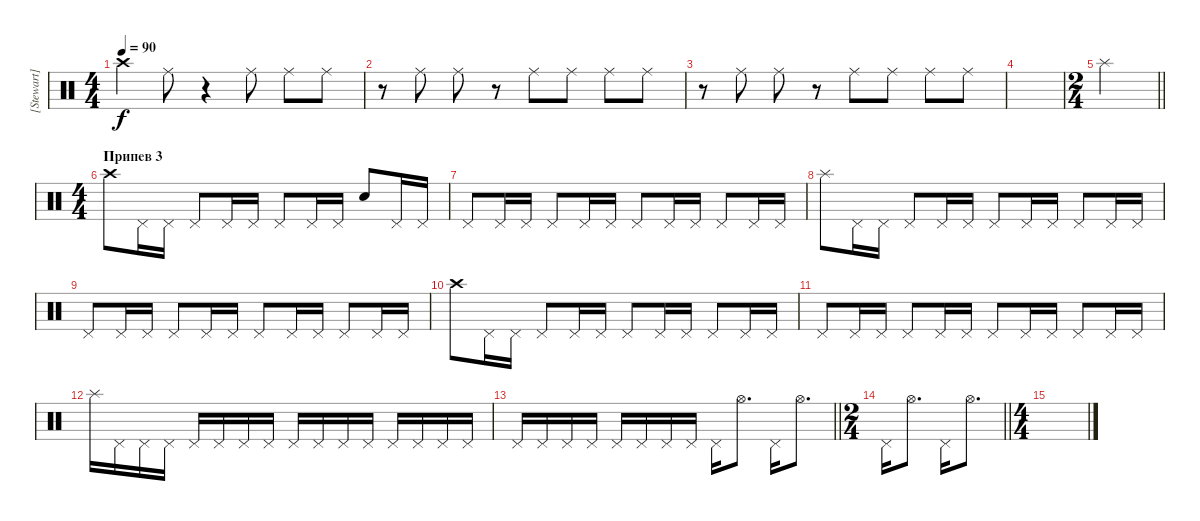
\track ("[Stewart] (hats)" "[Stewart] ") {instrument percussion}
\staff {score}
\articulation defaults
\ts (4 4)
\tempo 90
\clef neutral
\ks c "Crash high (hit)".4{dy f} "Ride (middle)".8
r.4 "Ride (middle)".8 "Ride (middle)".8 "Ride (middle)".8 |
r.8 "Ride (middle)".8 "Ride (middle)".8 r.8 "Ride (middle)".8 "Ride (middle)".8 "Ride (middle)".8 "Ride (middle)".8 |
r.8 "Ride (middle)".8 "Ride (middle)".8 r.8 "Ride (middle)".8 "Ride (middle)".8 "Ride (middle)".8 "Ride (middle)".8 |
|
\ts (2 4)
\barLineRight lightlight "Splash (hit)".2
|
\ts (4 4)
\section ("" "Припев 3")
"Crash high (hit)".8 "Pedal Hi-Hat (hit)".16 "Pedal Hi-Hat (hit)".16 "Pedal Hi-Hat (hit)".8 "Pedal Hi-Hat (hit)".16 "Pedal Hi-Hat (hit)".16 "Pedal Hi-Hat (hit)".8 "Pedal Hi-Hat (hit)".16 "Pedal Hi-Hat (hit)".16 "Snare (hit)".8 "Pedal Hi-Hat (hit)".16 "Pedal Hi-Hat (hit)".16 |
"Pedal Hi-Hat (hit)".8 "Pedal Hi-Hat (hit)".16 "Pedal Hi-Hat (hit)".16 "Pedal Hi-Hat (hit)".8 "Pedal Hi-Hat (hit)".16 "Pedal Hi-Hat (hit)".16 "Pedal Hi-Hat (hit)".8 "Pedal Hi-Hat (hit)".16 "Pedal Hi-Hat (hit)".16 "Pedal Hi-Hat (hit)".8 "Pedal Hi-Hat (hit)".16 "Pedal Hi-Hat (hit)".16 |
"Splash (hit)".8 "Pedal Hi-Hat (hit)".16 "Pedal Hi-Hat (hit)".16 "Pedal Hi-Hat (hit)".8 "Pedal Hi-Hat (hit)".16 "Pedal Hi-Hat (hit)".16 "Pedal Hi-Hat (hit)".8 "Pedal Hi-Hat (hit)".16 "Pedal Hi-Hat (hit)".16 "Pedal Hi-Hat (hit)".8 "Pedal Hi-Hat (hit)".16 "Pedal Hi-Hat (hit)".16 |
"Pedal Hi-Hat (hit)".8 "Pedal Hi-Hat (hit)".16 "Pedal Hi-Hat (hit)".16 "Pedal Hi-Hat (hit)".8 "Pedal Hi-Hat (hit)".16 "Pedal Hi-Hat (hit)".16 "Pedal Hi-Hat (hit)".8 "Pedal Hi-Hat (hit)".16 "Pedal Hi-Hat (hit)".16 "Pedal Hi-Hat (hit)".8 "Pedal Hi-Hat (hit)".16 "Pedal Hi-Hat (hit)".16 |
"Crash high (hit)".8 "Pedal Hi-Hat (hit)".16 "Pedal Hi-Hat (hit)".16 "Pedal Hi-Hat (hit)".8 "Pedal Hi-Hat (hit)".16 "Pedal Hi-Hat (hit)".16 "Pedal Hi-Hat (hit)".8 "Pedal Hi-Hat (hit)".16 "Pedal Hi-Hat (hit)".16 "Pedal Hi-Hat (hit)".8 "Pedal Hi-Hat (hit)".16 "Pedal Hi-Hat (hit)".16 |
"Pedal Hi-Hat (hit)".8 "Pedal Hi-Hat (hit)".16 "Pedal Hi-Hat (hit)".16 "Pedal Hi-Hat (hit)".8 "Pedal Hi-Hat (hit)".16 "Pedal Hi-Hat (hit)".16 "Pedal Hi-Hat (hit)".8 "Pedal Hi-Hat (hit)".16 "Pedal Hi-Hat (hit)".16 "Pedal Hi-Hat (hit)".8 "Pedal Hi-Hat (hit)".16 "Pedal Hi-Hat (hit)".16 |
"Splash (hit)".16 "Pedal Hi-Hat (hit)".16 "Pedal Hi-Hat (hit)".16 "Pedal Hi-Hat (hit)".16 "Pedal Hi-Hat (hit)".16 "Pedal Hi-Hat (hit)".16 "Pedal Hi-Hat (hit)".16 "Pedal Hi-Hat (hit)".16 "Pedal Hi-Hat (hit)".16 "Pedal Hi-Hat (hit)".16 "Pedal Hi-Hat (hit)".16 "Pedal Hi-Hat (hit)".16 "Pedal Hi-Hat (hit)".16 "Pedal Hi-Hat (hit)".16 "Pedal Hi-Hat (hit)".16 "Pedal Hi-Hat (hit)".16 |
\barLineRight lightlight "Pedal Hi-Hat (hit)".16 "Pedal Hi-Hat (hit)".16 "Pedal Hi-Hat (hit)".16 "Pedal Hi-Hat (hit)".16 "Pedal Hi-Hat (hit)".16 "Pedal Hi-Hat (hit)".16 "Pedal Hi-Hat (hit)".16 "Pedal Hi-Hat (hit)".16 "Pedal Hi-Hat (hit)".16 "Hi-Hat (open)".8{d} "Pedal Hi-Hat (hit)".16 "Hi-Hat (open)".8{d}
|
\ts (2 4)
\barLineRight lightlight "Pedal Hi-Hat (hit)".16 "Hi-Hat (open)".8{d} "Pedal Hi-Hat (hit)".16 "Hi-Hat (open)".8{d}
|
\ts (4 4)
